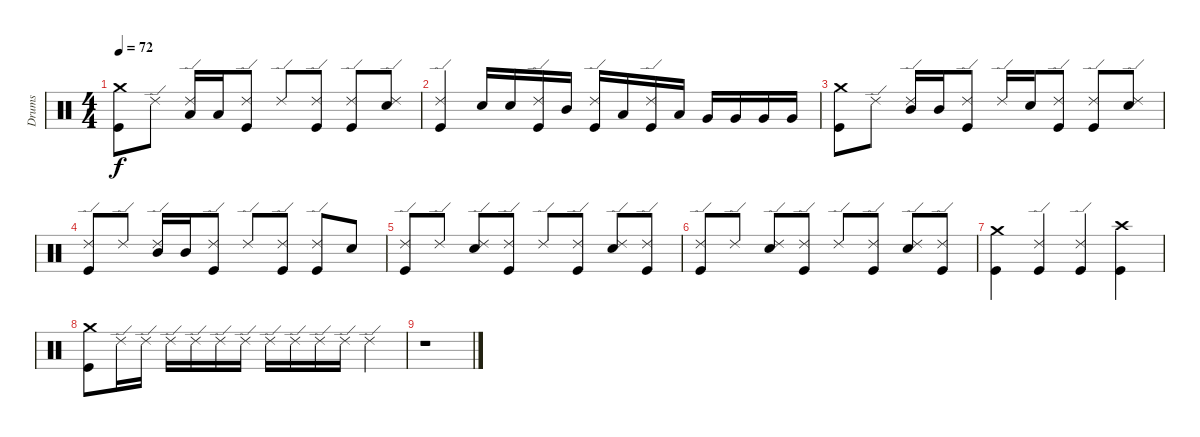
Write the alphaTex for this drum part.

\track ("Drums" "Drums") {instrument percussion}
\staff {score}
\articulation defaults
\ts (4 4)
\tempo 72
\clef neutral
\ks c
("Kick (hit)" "Crash medium (hit)").8{dy f} "Ride (edge) 2".8 ("Low Tom (hit)" "Ride (edge) 2").16 "Low Tom (hit)".16 ("Kick (hit)" "Ride (edge) 2").8 "Ride (edge) 2".8 ("Kick (hit)" "Ride (edge) 2").8 ("Kick (hit)" "Ride (edge) 2").8 ("Electric Snare (hit)" "Ride (edge) 2").8 |
("Kick (hit)" "Ride (edge) 2").4 "Electric Snare (hit)".16 "Electric Snare (hit)".16 ("Kick (hit)" "Ride (edge) 2").16 "Mid Tom (hit)".16 ("Kick (hit)" "Ride (edge) 2").16 "Low Tom (hit)".16 ("Kick (hit)" "Ride (edge) 2").16 "Low Tom (hit)".16 "Very Low Tom (hit)".16 "Very Low Tom (hit)".16 "Very Low Tom (hit)".16 "Very Low Tom (hit)".16 |
("Kick (hit)" "Crash medium (hit)").8 "Ride (edge) 2".8 ("Mid Tom (hit)" "Ride (edge) 2").16 "Mid Tom (hit)".16 ("Kick (hit)" "Ride (edge) 2").8 "Ride (edge) 2".16 "Electric Snare (hit)".16 ("Kick (hit)" "Ride (edge) 2").8 ("Kick (hit)" "Ride (edge) 2").8 ("Electric Snare (hit)" "Ride (edge) 2").8 |
("Kick (hit)" "Ride (edge) 2").8 "Ride (edge) 2".8 ("Mid Tom (hit)" "Ride (edge) 2").16 "Mid Tom (hit)".16 ("Kick (hit)" "Ride (edge) 2").8 "Ride (edge) 2".8 ("Kick (hit)" "Ride (edge) 2").8 ("Kick (hit)" "Ride (edge) 2").8 "Electric Snare (hit)".8 |
("Kick (hit)" "Ride (edge) 2").8 "Ride (edge) 2".8 ("Electric Snare (hit)" "Ride (edge) 2").8 ("Kick (hit)" "Ride (edge) 2").8 "Ride (edge) 2".8 ("Kick (hit)" "Ride (edge) 2").8 ("Electric Snare (hit)" "Ride (edge) 2").8 ("Kick (hit)" "Ride (edge) 2").8 |
("Kick (hit)" "Ride (edge) 2").8 "Ride (edge) 2".8 ("Electric Snare (hit)" "Ride (edge) 2").8 ("Kick (hit)" "Ride (edge) 2").8 "Ride (edge) 2".8 ("Kick (hit)" "Ride (edge) 2").8 ("Electric Snare (hit)" "Ride (edge) 2").8 ("Kick (hit)" "Ride (edge) 2").8 |
("Kick (hit)" "Crash medium (hit)").4 ("Kick (hit)" "Ride (edge) 2").4 ("Kick (hit)" "Ride (edge) 2").4 ("Kick (hit)" "Crash high (hit)").4 |
("Kick (hit)" "Crash medium (hit)").8 "Ride (edge) 2".16 "Ride (edge) 2".16 "Ride (edge) 2".16 "Ride (edge) 2".16 "Ride (edge) 2".16 "Ride (edge) 2".16 "Ride (edge) 2".16 "Ride (edge) 2".16 "Ride (edge) 2".16 "Ride (edge) 2".16 "Ride (edge) 2".4 |
r.1
